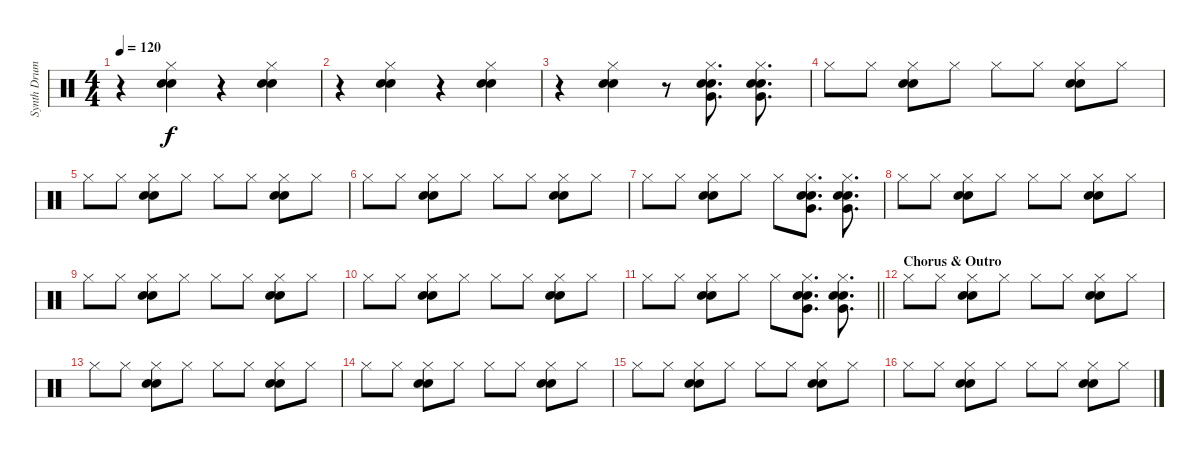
\track ("Synth Drums" "Synth Drum") {instrument percussion}
\staff {score}
\articulation defaults
\ts (4 4)
\tempo 120
\clef neutral
\ks c
r.4{dy f} ("Hi-Hat (closed)" "Snare (hit) 2" "Hand Clap (hit)").4 r.4 ("Hi-Hat (closed)" "Snare (hit) 2" "Hand Clap (hit)").4 |
r.4 ("Hi-Hat (closed)" "Snare (hit) 2" "Hand Clap (hit)").4 r.4 ("Hi-Hat (closed)" "Snare (hit) 2" "Hand Clap (hit)").4 |
r.4 ("Hi-Hat (closed)" "Snare (hit) 2" "Hand Clap (hit)").4 r.8 ("Hi-Hat (closed)" "Snare (hit) 2" "Very Low Tom (hit)" "Hand Clap (hit)").8{d} ("Hi-Hat (closed)" "Snare (hit) 2" "Very Low Tom (hit)" "Hand Clap (hit)").8{d} |
"Hi-Hat (closed)".8 "Hi-Hat (closed)".8 ("Hi-Hat (closed)" "Snare (hit) 2" "Hand Clap (hit)").8 "Hi-Hat (closed)".8 "Hi-Hat (closed)".8 "Hi-Hat (closed)".8 ("Hi-Hat (closed)" "Snare (hit) 2" "Hand Clap (hit)").8 "Hi-Hat (closed)".8 |
"Hi-Hat (closed)".8 "Hi-Hat (closed)".8 ("Hi-Hat (closed)" "Snare (hit) 2" "Hand Clap (hit)").8 "Hi-Hat (closed)".8 "Hi-Hat (closed)".8 "Hi-Hat (closed)".8 ("Hi-Hat (closed)" "Snare (hit) 2" "Hand Clap (hit)").8 "Hi-Hat (closed)".8 |
"Hi-Hat (closed)".8 "Hi-Hat (closed)".8 ("Hi-Hat (closed)" "Snare (hit) 2" "Hand Clap (hit)").8 "Hi-Hat (closed)".8 "Hi-Hat (closed)".8 "Hi-Hat (closed)".8 ("Hi-Hat (closed)" "Snare (hit) 2" "Hand Clap (hit)").8 "Hi-Hat (closed)".8 |
"Hi-Hat (closed)".8 "Hi-Hat (closed)".8 ("Hi-Hat (closed)" "Snare (hit) 2" "Hand Clap (hit)").8 "Hi-Hat (closed)".8 "Hi-Hat (closed)".8 ("Hi-Hat (closed)" "Snare (hit) 2" "Very Low Tom (hit)" "Hand Clap (hit)").8{d} ("Hi-Hat (closed)" "Snare (hit) 2" "Very Low Tom (hit)" "Hand Clap (hit)").8{d} |
"Hi-Hat (closed)".8 "Hi-Hat (closed)".8 ("Hi-Hat (closed)" "Snare (hit) 2" "Hand Clap (hit)").8 "Hi-Hat (closed)".8 "Hi-Hat (closed)".8 "Hi-Hat (closed)".8 ("Hi-Hat (closed)" "Snare (hit) 2" "Hand Clap (hit)").8 "Hi-Hat (closed)".8 |
"Hi-Hat (closed)".8 "Hi-Hat (closed)".8 ("Hi-Hat (closed)" "Snare (hit) 2" "Hand Clap (hit)").8 "Hi-Hat (closed)".8 "Hi-Hat (closed)".8 "Hi-Hat (closed)".8 ("Hi-Hat (closed)" "Snare (hit) 2" "Hand Clap (hit)").8 "Hi-Hat (closed)".8 |
"Hi-Hat (closed)".8 "Hi-Hat (closed)".8 ("Hi-Hat (closed)" "Snare (hit) 2" "Hand Clap (hit)").8 "Hi-Hat (closed)".8 "Hi-Hat (closed)".8 "Hi-Hat (closed)".8 ("Hi-Hat (closed)" "Snare (hit) 2" "Hand Clap (hit)").8 "Hi-Hat (closed)".8 |
\barLineRight lightlight "Hi-Hat (closed)".8 "Hi-Hat (closed)".8
("Hi-Hat (closed)" "Snare (hit) 2" "Hand Clap (hit)").8 "Hi-Hat (closed)".8 "Hi-Hat (closed)".8 ("Hi-Hat (closed)" "Snare (hit) 2" "Very Low Tom (hit)" "Hand Clap (hit)").8{d} ("Hi-Hat (closed)" "Snare (hit) 2" "Very Low Tom (hit)" "Hand Clap (hit)").8{d} |
\section ("" "Chorus & Outro")
"Hi-Hat (closed)".8 "Hi-Hat (closed)".8 ("Hi-Hat (closed)" "Snare (hit) 2" "Hand Clap (hit)").8 "Hi-Hat (closed)".8 "Hi-Hat (closed)".8 "Hi-Hat (closed)".8 ("Hi-Hat (closed)" "Snare (hit) 2" "Hand Clap (hit)").8 "Hi-Hat (closed)".8 |
"Hi-Hat (closed)".8 "Hi-Hat (closed)".8 ("Hi-Hat (closed)" "Snare (hit) 2" "Hand Clap (hit)").8 "Hi-Hat (closed)".8 "Hi-Hat (closed)".8 "Hi-Hat (closed)".8 ("Hi-Hat (closed)" "Snare (hit) 2" "Hand Clap (hit)").8 "Hi-Hat (closed)".8 |
"Hi-Hat (closed)".8 "Hi-Hat (closed)".8 ("Hi-Hat (closed)" "Snare (hit) 2" "Hand Clap (hit)").8 "Hi-Hat (closed)".8 "Hi-Hat (closed)".8 "Hi-Hat (closed)".8 ("Hi-Hat (closed)" "Snare (hit) 2" "Hand Clap (hit)").8 "Hi-Hat (closed)".8 |
"Hi-Hat (closed)".8 "Hi-Hat (closed)".8 ("Hi-Hat (closed)" "Snare (hit) 2" "Hand Clap (hit)").8 "Hi-Hat (closed)".8 "Hi-Hat (closed)".8 "Hi-Hat (closed)".8 ("Hi-Hat (closed)" "Snare (hit) 2" "Hand Clap (hit)").8 "Hi-Hat (closed)".8 |
"Hi-Hat (closed)".8 "Hi-Hat (closed)".8 ("Hi-Hat (closed)" "Snare (hit) 2" "Hand Clap (hit)").8 "Hi-Hat (closed)".8 "Hi-Hat (closed)".8 "Hi-Hat (closed)".8 ("Hi-Hat (closed)" "Snare (hit) 2" "Hand Clap (hit)").8 "Hi-Hat (closed)".8
